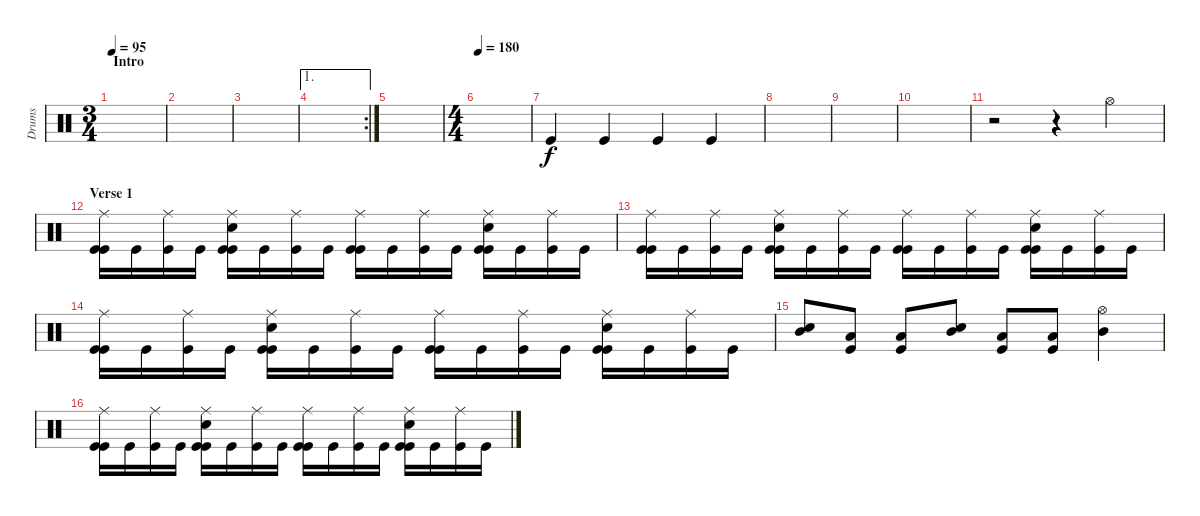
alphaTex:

\track ("Drums" "Drums") {instrument percussion}
\staff {score}
\articulation defaults
\ts (3 4)
\section ("" "Intro")
\tempo 95
\clef neutral
\ks c
|
|
|
\ae 1
\rc 2
|
|
\ts (4 4)
\tempo 180
|
"Kick (hit)".4 "Kick (hit)".4 "Kick (hit)".4 "Kick (hit)".4 |
|
|
|
r.2 r.4 "Hi-Hat (open)".4 |
\section ("" "Verse 1")
("Ride (middle)" "Kick (hit)" "Kick (hit)").16 "Kick (hit)".16 ("Ride (middle)" "Kick (hit)").16 "Kick (hit)".16 ("Ride (middle)" "Electric Snare (hit)" "Kick (hit)" "Kick (hit)").16 "Kick (hit)".16 ("Ride (middle)" "Kick (hit)").16 "Kick (hit)".16 ("Ride (middle)" "Kick (hit)" "Kick (hit)").16 "Kick (hit)".16 ("Ride (middle)" "Kick (hit)").16 "Kick (hit)".16 ("Ride (middle)" "Electric Snare (hit)" "Kick (hit)" "Kick (hit)").16 "Kick (hit)".16 ("Ride (middle)" "Kick (hit)").16 "Kick (hit)".16 |
("Ride (middle)" "Kick (hit)" "Kick (hit)").16 "Kick (hit)".16 ("Ride (middle)" "Kick (hit)").16 "Kick (hit)".16 ("Ride (middle)" "Electric Snare (hit)" "Kick (hit)" "Kick (hit)").16 "Kick (hit)".16 ("Ride (middle)" "Kick (hit)").16 "Kick (hit)".16 ("Ride (middle)" "Kick (hit)" "Kick (hit)").16 "Kick (hit)".16 ("Ride (middle)" "Kick (hit)").16 "Kick (hit)".16 ("Ride (middle)" "Electric Snare (hit)" "Kick (hit)" "Kick (hit)").16 "Kick (hit)".16 ("Ride (middle)" "Kick (hit)").16 "Kick (hit)".16 |
("Ride (middle)" "Kick (hit)" "Kick (hit)").16 "Kick (hit)".16 ("Ride (middle)" "Kick (hit)").16 "Kick (hit)".16 ("Ride (middle)" "Electric Snare (hit)" "Kick (hit)" "Kick (hit)").16 "Kick (hit)".16 ("Ride (middle)" "Kick (hit)").16 "Kick (hit)".16 ("Ride (middle)" "Kick (hit)" "Kick (hit)").16 "Kick (hit)".16 ("Ride (middle)" "Kick (hit)").16 "Kick (hit)".16 ("Ride (middle)" "Electric Snare (hit)" "Kick (hit)" "Kick (hit)").16 "Kick (hit)".16 ("Ride (middle)" "Kick (hit)").16 "Kick (hit)".16 |
("Electric Snare (hit)" "Mid Tom (hit)").8 ("Low Tom (hit)" "Kick (hit)").8 ("Low Tom (hit)" "Kick (hit)").8 ("Electric Snare (hit)" "Mid Tom (hit)").8 ("Low Tom (hit)" "Kick (hit)").8 ("Low Tom (hit)" "Kick (hit)").8 ("Hi-Hat (open)" "Mid Tom (hit)").4 |
("Ride (middle)" "Kick (hit)" "Kick (hit)").16 "Kick (hit)".16 ("Ride (middle)" "Kick (hit)").16 "Kick (hit)".16 ("Ride (middle)" "Electric Snare (hit)" "Kick (hit)" "Kick (hit)").16 "Kick (hit)".16 ("Ride (middle)" "Kick (hit)").16 "Kick (hit)".16 ("Ride (middle)" "Kick (hit)" "Kick (hit)").16 "Kick (hit)".16 ("Ride (middle)" "Kick (hit)").16 "Kick (hit)".16 ("Ride (middle)" "Electric Snare (hit)" "Kick (hit)" "Kick (hit)").16 "Kick (hit)".16 ("Ride (middle)" "Kick (hit)").16 "Kick (hit)".16
